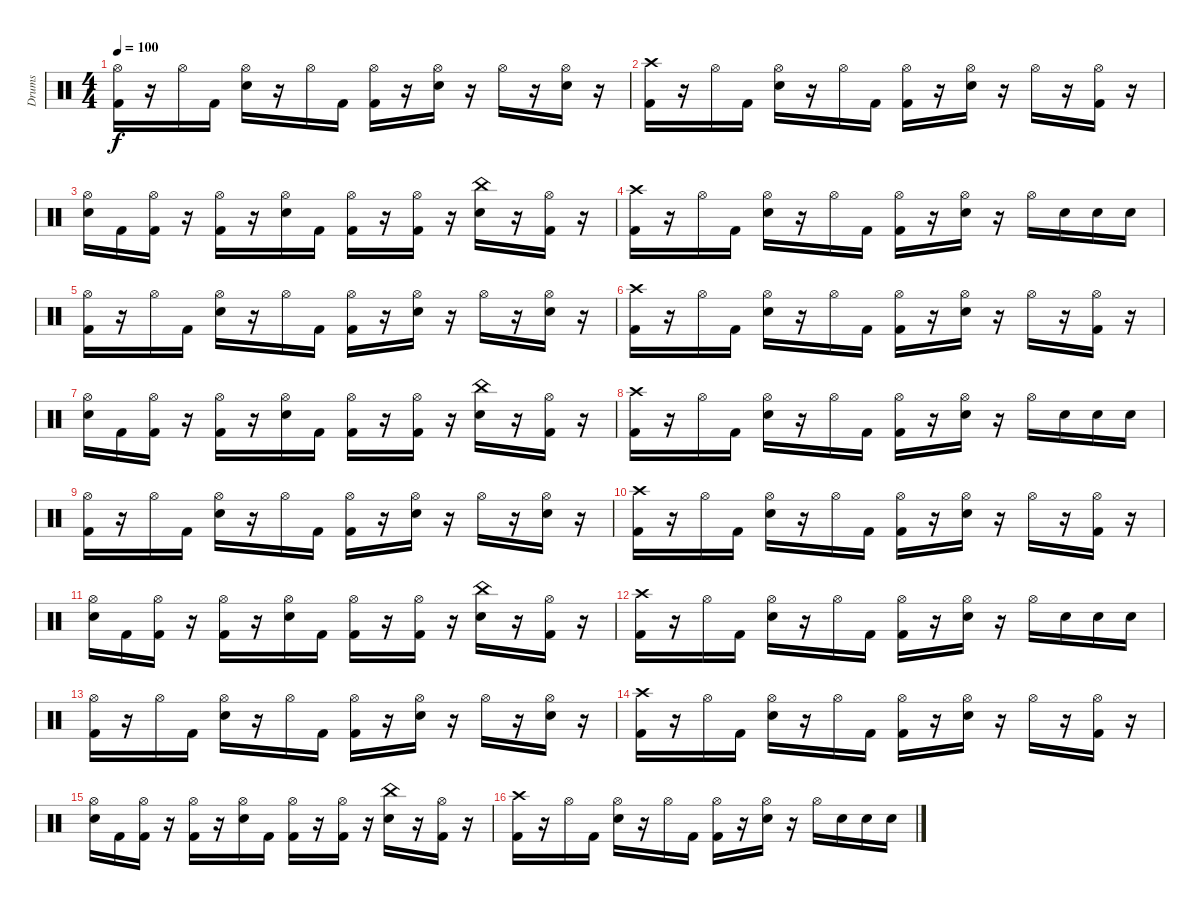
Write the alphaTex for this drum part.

\track ("Drums" "Drums") {instrument percussion}
\staff {score}
\articulation defaults
\ts (4 4)
\tempo 100
\clef neutral
\ks c
("Hi-Hat (open)" "Kick (hit) 2").16{dy f} r.16 "Hi-Hat (open)".16 "Kick (hit) 2".16 ("Hi-Hat (open)" "Electric Snare (hit)").16 r.16 "Hi-Hat (open)".16 "Kick (hit) 2".16 ("Hi-Hat (open)" "Kick (hit) 2").16 r.16 ("Hi-Hat (open)" "Electric Snare (hit)").16 r.16 "Hi-Hat (open)".16 r.16 ("Hi-Hat (open)" "Electric Snare (hit)").16 r.16 |
("Crash high (hit)" "Kick (hit) 2").16 r.16 "Hi-Hat (open)".16 "Kick (hit) 2".16 ("Hi-Hat (open)" "Electric Snare (hit)").16 r.16 "Hi-Hat (open)".16 "Kick (hit) 2".16 ("Hi-Hat (open)" "Kick (hit) 2").16 r.16 ("Hi-Hat (open)" "Electric Snare (hit)").16 r.16 "Hi-Hat (open)".16 r.16 ("Hi-Hat (open)" "Kick (hit) 2").16 r.16 |
("Hi-Hat (open)" "Electric Snare (hit)").16 "Kick (hit) 2".16 ("Hi-Hat (open)" "Kick (hit) 2").16 r.16 ("Hi-Hat (open)" "Kick (hit) 2").16 r.16 ("Hi-Hat (open)" "Electric Snare (hit)").16 "Kick (hit) 2".16 ("Hi-Hat (open)" "Kick (hit) 2").16 r.16 ("Hi-Hat (open)" "Kick (hit) 2").16 r.16 ("China (hit)" "Electric Snare (hit)").16 r.16 ("Hi-Hat (open)" "Kick (hit) 2").16 r.16 |
("Crash high (hit)" "Kick (hit) 2").16 r.16 "Hi-Hat (open)".16 "Kick (hit) 2".16 ("Hi-Hat (open)" "Electric Snare (hit)").16 r.16 "Hi-Hat (open)".16 "Kick (hit) 2".16 ("Hi-Hat (open)" "Kick (hit) 2").16 r.16 ("Hi-Hat (open)" "Electric Snare (hit)").16 r.16 "Hi-Hat (open)".16 "Electric Snare (hit)".16 "Electric Snare (hit)".16 "Electric Snare (hit)".16 |
("Hi-Hat (open)" "Kick (hit) 2").16 r.16 "Hi-Hat (open)".16 "Kick (hit) 2".16 ("Hi-Hat (open)" "Electric Snare (hit)").16 r.16 "Hi-Hat (open)".16 "Kick (hit) 2".16 ("Hi-Hat (open)" "Kick (hit) 2").16 r.16 ("Hi-Hat (open)" "Electric Snare (hit)").16 r.16 "Hi-Hat (open)".16 r.16 ("Hi-Hat (open)" "Electric Snare (hit)").16 r.16 |
("Crash high (hit)" "Kick (hit) 2").16 r.16 "Hi-Hat (open)".16 "Kick (hit) 2".16 ("Hi-Hat (open)" "Electric Snare (hit)").16 r.16 "Hi-Hat (open)".16 "Kick (hit) 2".16 ("Hi-Hat (open)" "Kick (hit) 2").16 r.16 ("Hi-Hat (open)" "Electric Snare (hit)").16 r.16 "Hi-Hat (open)".16 r.16 ("Hi-Hat (open)" "Kick (hit) 2").16 r.16 |
("Hi-Hat (open)" "Electric Snare (hit)").16 "Kick (hit) 2".16 ("Hi-Hat (open)" "Kick (hit) 2").16 r.16 ("Hi-Hat (open)" "Kick (hit) 2").16 r.16 ("Hi-Hat (open)" "Electric Snare (hit)").16 "Kick (hit) 2".16 ("Hi-Hat (open)" "Kick (hit) 2").16 r.16 ("Hi-Hat (open)" "Kick (hit) 2").16 r.16 ("China (hit)" "Electric Snare (hit)").16 r.16 ("Hi-Hat (open)" "Kick (hit) 2").16 r.16 |
("Crash high (hit)" "Kick (hit) 2").16 r.16 "Hi-Hat (open)".16 "Kick (hit) 2".16 ("Hi-Hat (open)" "Electric Snare (hit)").16 r.16 "Hi-Hat (open)".16 "Kick (hit) 2".16 ("Hi-Hat (open)" "Kick (hit) 2").16 r.16 ("Hi-Hat (open)" "Electric Snare (hit)").16 r.16 "Hi-Hat (open)".16 "Electric Snare (hit)".16 "Electric Snare (hit)".16 "Electric Snare (hit)".16 |
("Hi-Hat (open)" "Kick (hit) 2").16 r.16 "Hi-Hat (open)".16 "Kick (hit) 2".16 ("Hi-Hat (open)" "Electric Snare (hit)").16 r.16 "Hi-Hat (open)".16 "Kick (hit) 2".16 ("Hi-Hat (open)" "Kick (hit) 2").16 r.16 ("Hi-Hat (open)" "Electric Snare (hit)").16 r.16 "Hi-Hat (open)".16 r.16 ("Hi-Hat (open)" "Electric Snare (hit)").16 r.16 |
("Crash high (hit)" "Kick (hit) 2").16 r.16 "Hi-Hat (open)".16 "Kick (hit) 2".16 ("Hi-Hat (open)" "Electric Snare (hit)").16 r.16 "Hi-Hat (open)".16 "Kick (hit) 2".16 ("Hi-Hat (open)" "Kick (hit) 2").16 r.16 ("Hi-Hat (open)" "Electric Snare (hit)").16 r.16 "Hi-Hat (open)".16 r.16 ("Hi-Hat (open)" "Kick (hit) 2").16 r.16 |
("Hi-Hat (open)" "Electric Snare (hit)").16 "Kick (hit) 2".16 ("Hi-Hat (open)" "Kick (hit) 2").16 r.16 ("Hi-Hat (open)" "Kick (hit) 2").16 r.16 ("Hi-Hat (open)" "Electric Snare (hit)").16 "Kick (hit) 2".16 ("Hi-Hat (open)" "Kick (hit) 2").16 r.16 ("Hi-Hat (open)" "Kick (hit) 2").16 r.16 ("China (hit)" "Electric Snare (hit)").16 r.16 ("Hi-Hat (open)" "Kick (hit) 2").16 r.16 |
("Crash high (hit)" "Kick (hit) 2").16 r.16 "Hi-Hat (open)".16 "Kick (hit) 2".16 ("Hi-Hat (open)" "Electric Snare (hit)").16 r.16 "Hi-Hat (open)".16 "Kick (hit) 2".16 ("Hi-Hat (open)" "Kick (hit) 2").16 r.16 ("Hi-Hat (open)" "Electric Snare (hit)").16 r.16 "Hi-Hat (open)".16 "Electric Snare (hit)".16 "Electric Snare (hit)".16 "Electric Snare (hit)".16 |
("Hi-Hat (open)" "Kick (hit) 2").16 r.16 "Hi-Hat (open)".16 "Kick (hit) 2".16 ("Hi-Hat (open)" "Electric Snare (hit)").16 r.16 "Hi-Hat (open)".16 "Kick (hit) 2".16 ("Hi-Hat (open)" "Kick (hit) 2").16 r.16 ("Hi-Hat (open)" "Electric Snare (hit)").16 r.16 "Hi-Hat (open)".16 r.16 ("Hi-Hat (open)" "Electric Snare (hit)").16 r.16 |
("Crash high (hit)" "Kick (hit) 2").16 r.16 "Hi-Hat (open)".16 "Kick (hit) 2".16 ("Hi-Hat (open)" "Electric Snare (hit)").16 r.16 "Hi-Hat (open)".16 "Kick (hit) 2".16 ("Hi-Hat (open)" "Kick (hit) 2").16 r.16 ("Hi-Hat (open)" "Electric Snare (hit)").16 r.16 "Hi-Hat (open)".16 r.16 ("Hi-Hat (open)" "Kick (hit) 2").16 r.16 |
("Hi-Hat (open)" "Electric Snare (hit)").16 "Kick (hit) 2".16 ("Hi-Hat (open)" "Kick (hit) 2").16 r.16 ("Hi-Hat (open)" "Kick (hit) 2").16 r.16 ("Hi-Hat (open)" "Electric Snare (hit)").16 "Kick (hit) 2".16 ("Hi-Hat (open)" "Kick (hit) 2").16 r.16 ("Hi-Hat (open)" "Kick (hit) 2").16 r.16 ("China (hit)" "Electric Snare (hit)").16 r.16 ("Hi-Hat (open)" "Kick (hit) 2").16 r.16 |
("Crash high (hit)" "Kick (hit) 2").16 r.16 "Hi-Hat (open)".16 "Kick (hit) 2".16 ("Hi-Hat (open)" "Electric Snare (hit)").16 r.16 "Hi-Hat (open)".16 "Kick (hit) 2".16 ("Hi-Hat (open)" "Kick (hit) 2").16 r.16 ("Hi-Hat (open)" "Electric Snare (hit)").16 r.16 "Hi-Hat (open)".16 "Electric Snare (hit)".16 "Electric Snare (hit)".16 "Electric Snare (hit)".16
